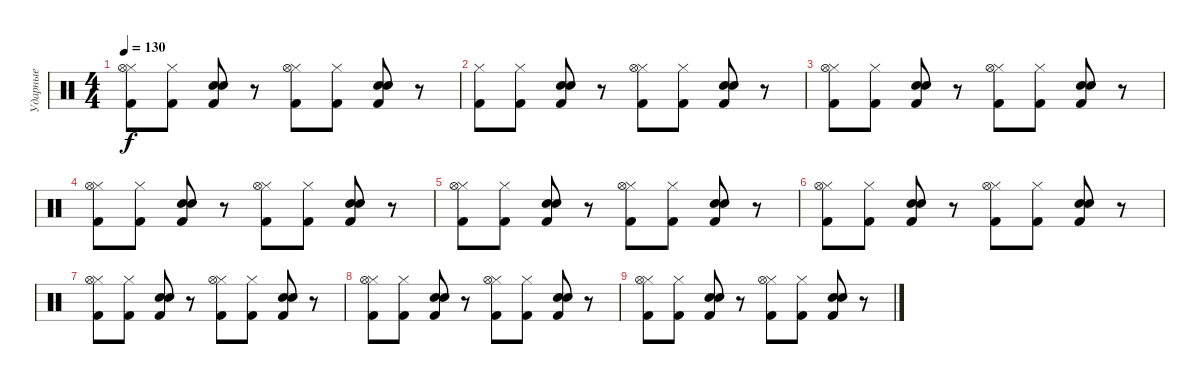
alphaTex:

\track ("Ударные" "Ударные") {instrument percussion}
\staff {score}
\articulation defaults
\ts (4 4)
\tempo 130
\clef neutral
\ks c
("Hi-Hat (closed)" "Kick (hit) 2" "Hi-Hat (open)").8{dy f} ("Hi-Hat (closed)" "Kick (hit) 2").8 ("Snare (hit) 2" "Kick (hit) 2" "Electric Snare (hit)").8 r.8 ("Hi-Hat (closed)" "Kick (hit) 2" "Hi-Hat (open)").8 ("Hi-Hat (closed)" "Kick (hit) 2").8 ("Snare (hit) 2" "Kick (hit) 2" "Electric Snare (hit)").8 r.8 |
("Hi-Hat (closed)" "Kick (hit) 2").8 ("Hi-Hat (closed)" "Kick (hit) 2").8 ("Snare (hit) 2" "Kick (hit) 2" "Electric Snare (hit)").8 r.8 ("Hi-Hat (closed)" "Kick (hit) 2" "Hi-Hat (open)").8 ("Hi-Hat (closed)" "Kick (hit) 2").8 ("Snare (hit) 2" "Kick (hit) 2" "Electric Snare (hit)").8 r.8 |
("Hi-Hat (closed)" "Kick (hit) 2" "Hi-Hat (open)").8 ("Hi-Hat (closed)" "Kick (hit) 2").8 ("Snare (hit) 2" "Kick (hit) 2" "Electric Snare (hit)").8 r.8 ("Hi-Hat (closed)" "Kick (hit) 2" "Hi-Hat (open)").8 ("Hi-Hat (closed)" "Kick (hit) 2").8 ("Snare (hit) 2" "Kick (hit) 2" "Electric Snare (hit)").8 r.8 |
("Hi-Hat (closed)" "Kick (hit) 2" "Hi-Hat (open)").8 ("Hi-Hat (closed)" "Kick (hit) 2").8 ("Snare (hit) 2" "Kick (hit) 2" "Electric Snare (hit)").8 r.8 ("Hi-Hat (closed)" "Kick (hit) 2" "Hi-Hat (open)").8 ("Hi-Hat (closed)" "Kick (hit) 2").8 ("Snare (hit) 2" "Kick (hit) 2" "Electric Snare (hit)").8 r.8 |
("Hi-Hat (closed)" "Kick (hit) 2" "Hi-Hat (open)").8 ("Hi-Hat (closed)" "Kick (hit) 2").8 ("Snare (hit) 2" "Kick (hit) 2" "Electric Snare (hit)").8 r.8 ("Hi-Hat (closed)" "Kick (hit) 2" "Hi-Hat (open)").8 ("Hi-Hat (closed)" "Kick (hit) 2").8 ("Snare (hit) 2" "Kick (hit) 2" "Electric Snare (hit)").8 r.8 |
("Hi-Hat (closed)" "Kick (hit) 2" "Hi-Hat (open)").8 ("Hi-Hat (closed)" "Kick (hit) 2").8 ("Snare (hit) 2" "Kick (hit) 2" "Electric Snare (hit)").8 r.8 ("Hi-Hat (closed)" "Kick (hit) 2" "Hi-Hat (open)").8 ("Hi-Hat (closed)" "Kick (hit) 2").8 ("Snare (hit) 2" "Kick (hit) 2" "Electric Snare (hit)").8 r.8 |
("Hi-Hat (closed)" "Kick (hit) 2" "Hi-Hat (open)").8 ("Hi-Hat (closed)" "Kick (hit) 2").8 ("Snare (hit) 2" "Kick (hit) 2" "Electric Snare (hit)").8 r.8 ("Hi-Hat (closed)" "Kick (hit) 2" "Hi-Hat (open)").8 ("Hi-Hat (closed)" "Kick (hit) 2").8 ("Snare (hit) 2" "Kick (hit) 2" "Electric Snare (hit)").8 r.8 |
("Hi-Hat (closed)" "Kick (hit) 2" "Hi-Hat (open)").8 ("Hi-Hat (closed)" "Kick (hit) 2").8 ("Snare (hit) 2" "Kick (hit) 2" "Electric Snare (hit)").8 r.8 ("Hi-Hat (closed)" "Kick (hit) 2" "Hi-Hat (open)").8 ("Hi-Hat (closed)" "Kick (hit) 2").8 ("Snare (hit) 2" "Kick (hit) 2" "Electric Snare (hit)").8 r.8 |
("Hi-Hat (closed)" "Kick (hit) 2" "Hi-Hat (open)").8 ("Hi-Hat (closed)" "Kick (hit) 2").8 ("Snare (hit) 2" "Kick (hit) 2" "Electric Snare (hit)").8 r.8 ("Hi-Hat (closed)" "Kick (hit) 2" "Hi-Hat (open)").8 ("Hi-Hat (closed)" "Kick (hit) 2").8 ("Snare (hit) 2" "Kick (hit) 2" "Electric Snare (hit)").8 r.8
